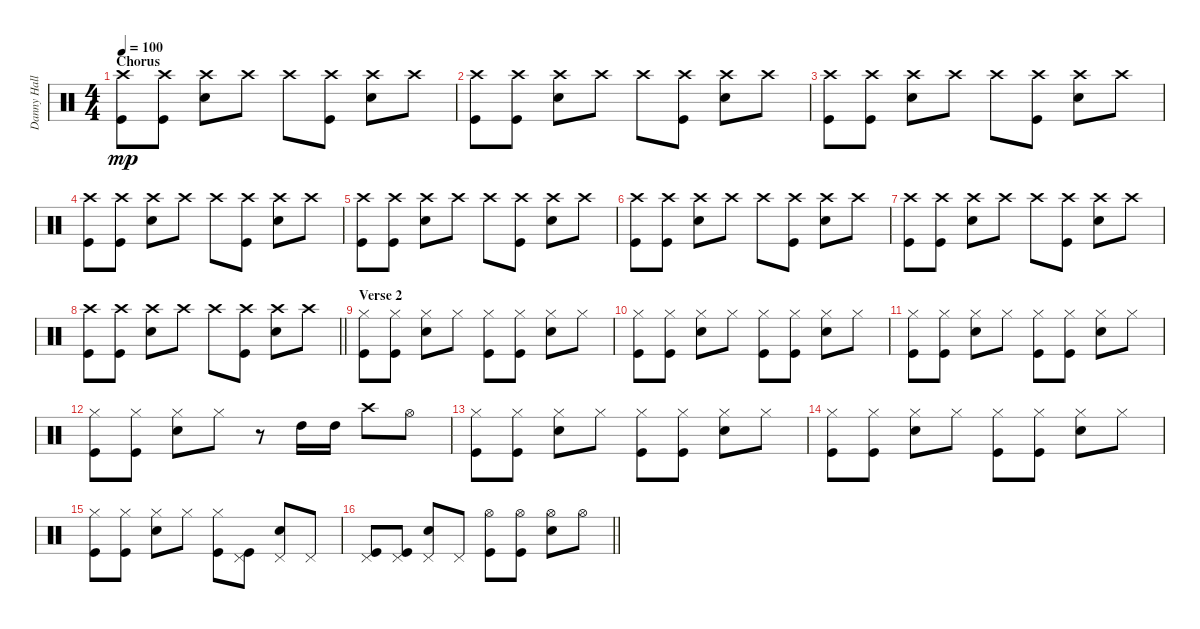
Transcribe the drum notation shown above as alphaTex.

\track ("Danny Hall" "Danny Hall") {instrument percussion}
\staff {score}
\articulation defaults
\ts (4 4)
\section ("" "Chorus")
\tempo 100
\clef neutral
\ks c
("Crash high (hit)" "Kick (hit)").8{dy mp} ("Crash high (hit)" "Kick (hit)").8 ("Crash high (hit)" "Snare (hit) 2").8 "Crash high (hit)".8 "Crash high (hit)".8 ("Crash high (hit)" "Kick (hit)").8 ("Crash high (hit)" "Snare (hit) 2").8 "Crash high (hit)".8 |
("Crash high (hit)" "Kick (hit)").8 ("Crash high (hit)" "Kick (hit)").8 ("Crash high (hit)" "Snare (hit) 2").8 "Crash high (hit)".8 "Crash high (hit)".8 ("Crash high (hit)" "Kick (hit)").8 ("Crash high (hit)" "Snare (hit) 2").8 "Crash high (hit)".8 |
("Crash high (hit)" "Kick (hit)").8 ("Crash high (hit)" "Kick (hit)").8 ("Crash high (hit)" "Snare (hit) 2").8 "Crash high (hit)".8 "Crash high (hit)".8 ("Crash high (hit)" "Kick (hit)").8 ("Crash high (hit)" "Snare (hit) 2").8 "Crash high (hit)".8 |
("Crash high (hit)" "Kick (hit)").8 ("Crash high (hit)" "Kick (hit)").8 ("Crash high (hit)" "Snare (hit) 2").8 "Crash high (hit)".8 "Crash high (hit)".8 ("Crash high (hit)" "Kick (hit)").8 ("Crash high (hit)" "Snare (hit) 2").8 "Crash high (hit)".8 |
("Crash high (hit)" "Kick (hit)").8 ("Crash high (hit)" "Kick (hit)").8 ("Crash high (hit)" "Snare (hit) 2").8 "Crash high (hit)".8 "Crash high (hit)".8 ("Crash high (hit)" "Kick (hit)").8 ("Crash high (hit)" "Snare (hit) 2").8 "Crash high (hit)".8 |
("Crash high (hit)" "Kick (hit)").8 ("Crash high (hit)" "Kick (hit)").8 ("Crash high (hit)" "Snare (hit) 2").8 "Crash high (hit)".8 "Crash high (hit)".8 ("Crash high (hit)" "Kick (hit)").8 ("Crash high (hit)" "Snare (hit) 2").8 "Crash high (hit)".8 |
("Crash high (hit)" "Kick (hit)").8 ("Crash high (hit)" "Kick (hit)").8 ("Crash high (hit)" "Snare (hit) 2").8 "Crash high (hit)".8 "Crash high (hit)".8 ("Crash high (hit)" "Kick (hit)").8 ("Crash high (hit)" "Snare (hit) 2").8 "Crash high (hit)".8 |
\barLineRight lightlight
("Crash high (hit)" "Kick (hit)").8 ("Crash high (hit)" "Kick (hit)").8 ("Crash high (hit)" "Snare (hit) 2").8 "Crash high (hit)".8 "Crash high (hit)".8 ("Crash high (hit)" "Kick (hit)").8 ("Crash high (hit)" "Snare (hit) 2").8 "Crash high (hit)".8 |
\section ("" "Verse 2")
("Hi-Hat (closed)" "Kick (hit)").8 ("Hi-Hat (closed)" "Kick (hit)").8 ("Hi-Hat (closed)" "Snare (hit) 2").8 "Hi-Hat (closed)".8 ("Hi-Hat (closed)" "Kick (hit)").8 ("Hi-Hat (closed)" "Kick (hit)").8 ("Hi-Hat (closed)" "Snare (hit) 2").8 "Hi-Hat (closed)".8 |
("Hi-Hat (closed)" "Kick (hit)").8 ("Hi-Hat (closed)" "Kick (hit)").8 ("Hi-Hat (closed)" "Snare (hit) 2").8 "Hi-Hat (closed)".8 ("Hi-Hat (closed)" "Kick (hit)").8 ("Hi-Hat (closed)" "Kick (hit)").8 ("Hi-Hat (closed)" "Snare (hit) 2").8 "Hi-Hat (closed)".8 |
("Hi-Hat (closed)" "Kick (hit)").8 ("Hi-Hat (closed)" "Kick (hit)").8 ("Hi-Hat (closed)" "Snare (hit) 2").8 "Hi-Hat (closed)".8 ("Hi-Hat (closed)" "Kick (hit)").8 ("Hi-Hat (closed)" "Kick (hit)").8 ("Hi-Hat (closed)" "Snare (hit) 2").8 "Hi-Hat (closed)".8 |
("Hi-Hat (closed)" "Kick (hit)").8 ("Hi-Hat (closed)" "Kick (hit)").8 ("Hi-Hat (closed)" "Snare (hit) 2").8 "Hi-Hat (closed)".8 r.8 "High Tom (hit)".16 "High Tom (hit)".16 "Crash high (hit)".8 "Hi-Hat (open)".8 |
("Hi-Hat (closed)" "Kick (hit)").8 ("Hi-Hat (closed)" "Kick (hit)").8 ("Hi-Hat (closed)" "Snare (hit) 2").8 "Hi-Hat (closed)".8 ("Hi-Hat (closed)" "Kick (hit)").8 ("Hi-Hat (closed)" "Kick (hit)").8 ("Hi-Hat (closed)" "Snare (hit) 2").8 "Hi-Hat (closed)".8 |
("Hi-Hat (closed)" "Kick (hit)").8 ("Hi-Hat (closed)" "Kick (hit)").8 ("Hi-Hat (closed)" "Snare (hit) 2").8 "Hi-Hat (closed)".8 ("Hi-Hat (closed)" "Kick (hit)").8 ("Hi-Hat (closed)" "Kick (hit)").8 ("Hi-Hat (closed)" "Snare (hit) 2").8 "Hi-Hat (closed)".8 |
("Hi-Hat (closed)" "Kick (hit)").8 ("Hi-Hat (closed)" "Kick (hit)").8 ("Hi-Hat (closed)" "Snare (hit) 2").8 "Hi-Hat (closed)".8 ("Hi-Hat (closed)" "Kick (hit)").8 ("Pedal Hi-Hat (hit)" "Kick (hit)").8 ("Pedal Hi-Hat (hit)" "Snare (hit) 2").8 "Pedal Hi-Hat (hit)".8 |
\barLineRight lightlight
("Pedal Hi-Hat (hit)" "Kick (hit)").8 ("Pedal Hi-Hat (hit)" "Kick (hit)").8 ("Pedal Hi-Hat (hit)" "Snare (hit) 2").8 "Pedal Hi-Hat (hit)".8 ("Hi-Hat (open)" "Kick (hit)").8 ("Hi-Hat (open)" "Kick (hit)").8 ("Hi-Hat (open)" "Snare (hit) 2").8 "Hi-Hat (open)".8
